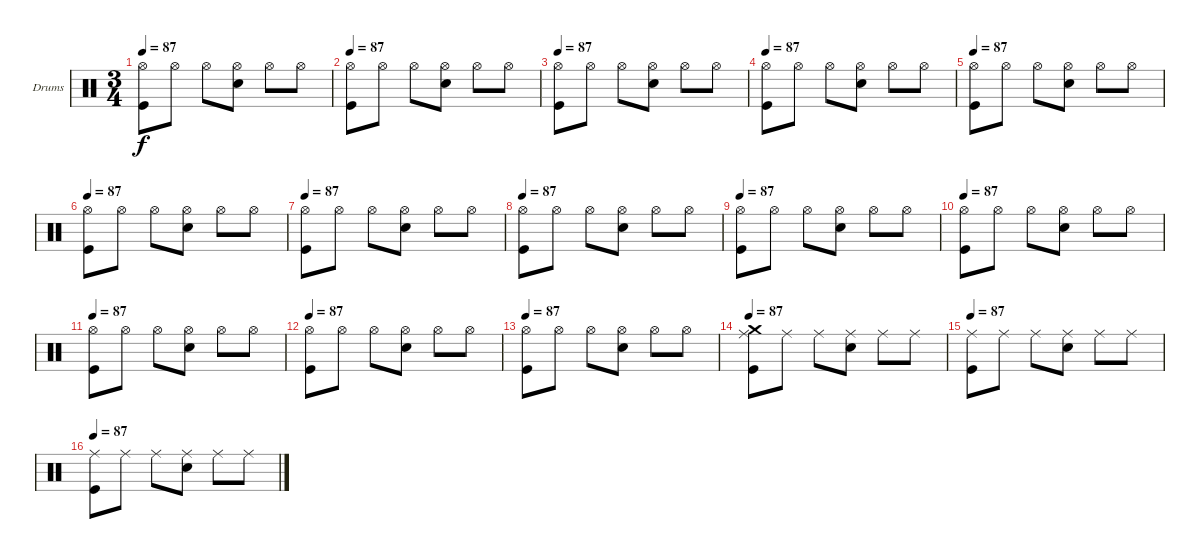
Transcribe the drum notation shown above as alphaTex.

\bracketExtendMode groupsimilarinstruments
\firstSystemTrackNameOrientation horizontal
\otherSystemsTrackNameOrientation horizontal
\track ("Drumkit" "Drums") {instrument percussion}
\staff {score}
\articulation defaults
\ts (3 4)
\tempo 87
\clef neutral
\ks c
("Hi-Hat (open)" "Kick (hit)").8{dy f} "Hi-Hat (open)".8 "Hi-Hat (open)".8 ("Hi-Hat (open)" "Snare (hit) 2").8 "Hi-Hat (open)".8 "Hi-Hat (open)".8 |
\tempo 87
("Hi-Hat (open)" "Kick (hit)").8 "Hi-Hat (open)".8 "Hi-Hat (open)".8 ("Hi-Hat (open)" "Snare (hit) 2").8 "Hi-Hat (open)".8 "Hi-Hat (open)".8 |
\tempo 87
("Hi-Hat (open)" "Kick (hit)").8 "Hi-Hat (open)".8 "Hi-Hat (open)".8 ("Hi-Hat (open)" "Snare (hit) 2").8 "Hi-Hat (open)".8 "Hi-Hat (open)".8 |
\tempo 87
("Hi-Hat (open)" "Kick (hit)").8 "Hi-Hat (open)".8 "Hi-Hat (open)".8 ("Hi-Hat (open)" "Snare (hit) 2").8 "Hi-Hat (open)".8 "Hi-Hat (open)".8 |
\tempo 87
("Hi-Hat (open)" "Kick (hit)").8 "Hi-Hat (open)".8 "Hi-Hat (open)".8 ("Hi-Hat (open)" "Snare (hit) 2").8 "Hi-Hat (open)".8 "Hi-Hat (open)".8 |
\tempo 87
("Hi-Hat (open)" "Kick (hit)").8 "Hi-Hat (open)".8 "Hi-Hat (open)".8 ("Hi-Hat (open)" "Snare (hit) 2").8 "Hi-Hat (open)".8 "Hi-Hat (open)".8 |
\tempo 87
("Hi-Hat (open)" "Kick (hit)").8 "Hi-Hat (open)".8 "Hi-Hat (open)".8 ("Hi-Hat (open)" "Snare (hit) 2").8 "Hi-Hat (open)".8 "Hi-Hat (open)".8 |
\tempo 87
("Hi-Hat (open)" "Kick (hit)").8 "Hi-Hat (open)".8 "Hi-Hat (open)".8 ("Hi-Hat (open)" "Snare (hit) 2").8 "Hi-Hat (open)".8 "Hi-Hat (open)".8 |
\tempo 87
("Hi-Hat (open)" "Kick (hit)").8 "Hi-Hat (open)".8 "Hi-Hat (open)".8 ("Hi-Hat (open)" "Snare (hit) 2").8 "Hi-Hat (open)".8 "Hi-Hat (open)".8 |
\tempo 87
("Hi-Hat (open)" "Kick (hit)").8 "Hi-Hat (open)".8 "Hi-Hat (open)".8 ("Hi-Hat (open)" "Snare (hit) 2").8 "Hi-Hat (open)".8 "Hi-Hat (open)".8 |
\tempo 87
("Hi-Hat (open)" "Kick (hit)").8 "Hi-Hat (open)".8 "Hi-Hat (open)".8 ("Hi-Hat (open)" "Snare (hit) 2").8 "Hi-Hat (open)".8 "Hi-Hat (open)".8 |
\tempo 87
("Hi-Hat (open)" "Kick (hit)").8 "Hi-Hat (open)".8 "Hi-Hat (open)".8 ("Hi-Hat (open)" "Snare (hit) 2").8 "Hi-Hat (open)".8 "Hi-Hat (open)".8 |
\tempo 87
("Hi-Hat (open)" "Kick (hit)").8 "Hi-Hat (open)".8 "Hi-Hat (open)".8 ("Hi-Hat (open)" "Snare (hit) 2").8 "Hi-Hat (open)".8 "Hi-Hat (open)".8 |
\tempo 87
("Crash medium (hit)" "Ride (middle)" "Kick (hit)").8 "Ride (middle)".8 "Ride (middle)".8 ("Ride (middle)" "Snare (hit) 2").8 "Ride (middle)".8 "Ride (middle)".8 |
\tempo 87
("Ride (middle)" "Kick (hit)").8 "Ride (middle)".8 "Ride (middle)".8 ("Ride (middle)" "Snare (hit) 2").8 "Ride (middle)".8 "Ride (middle)".8 |
\tempo 87
("Ride (middle)" "Kick (hit)").8 "Ride (middle)".8 "Ride (middle)".8 ("Ride (middle)" "Snare (hit) 2").8 "Ride (middle)".8 "Ride (middle)".8
